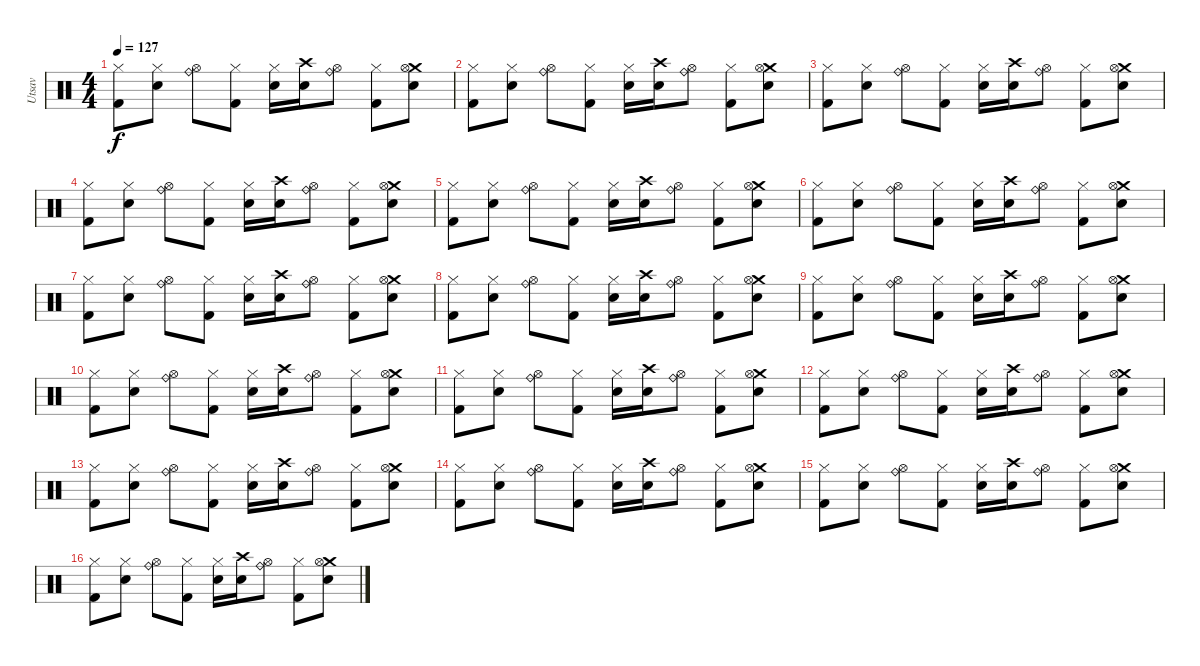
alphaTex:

\track ("Utsav" "Utsav") {instrument percussion}
\staff {score}
\articulation defaults
\ts (4 4)
\tempo 127
\clef neutral
\ks c
("Hi-Hat (closed)" "Kick (hit) 2").8{dy f} ("Hi-Hat (closed)" "Snare (hit) 2").8 ("Ride (bell)" "Hi-Hat (open)").8 ("Hi-Hat (closed)" "Kick (hit) 2").8 ("Hi-Hat (closed)" "Snare (hit) 2").16 ("Crash high (hit)" "Snare (hit) 2").16 ("Ride (bell)" "Hi-Hat (open)").8 ("Hi-Hat (closed)" "Kick (hit) 2").8 ("Crash medium (hit)" "Hi-Hat (open)" "Snare (hit) 2").8 |
("Hi-Hat (closed)" "Kick (hit) 2").8 ("Hi-Hat (closed)" "Snare (hit) 2").8 ("Ride (bell)" "Hi-Hat (open)").8 ("Hi-Hat (closed)" "Kick (hit) 2").8 ("Hi-Hat (closed)" "Snare (hit) 2").16 ("Crash high (hit)" "Snare (hit) 2").16 ("Ride (bell)" "Hi-Hat (open)").8 ("Hi-Hat (closed)" "Kick (hit) 2").8 ("Crash medium (hit)" "Hi-Hat (open)" "Snare (hit) 2").8 |
("Hi-Hat (closed)" "Kick (hit) 2").8 ("Hi-Hat (closed)" "Snare (hit) 2").8 ("Ride (bell)" "Hi-Hat (open)").8 ("Hi-Hat (closed)" "Kick (hit) 2").8 ("Hi-Hat (closed)" "Snare (hit) 2").16 ("Crash high (hit)" "Snare (hit) 2").16 ("Ride (bell)" "Hi-Hat (open)").8 ("Hi-Hat (closed)" "Kick (hit) 2").8 ("Crash medium (hit)" "Hi-Hat (open)" "Snare (hit) 2").8 |
("Hi-Hat (closed)" "Kick (hit) 2").8 ("Hi-Hat (closed)" "Snare (hit) 2").8 ("Ride (bell)" "Hi-Hat (open)").8 ("Hi-Hat (closed)" "Kick (hit) 2").8 ("Hi-Hat (closed)" "Snare (hit) 2").16 ("Crash high (hit)" "Snare (hit) 2").16 ("Ride (bell)" "Hi-Hat (open)").8 ("Hi-Hat (closed)" "Kick (hit) 2").8 ("Crash medium (hit)" "Hi-Hat (open)" "Snare (hit) 2").8 |
("Hi-Hat (closed)" "Kick (hit) 2").8 ("Hi-Hat (closed)" "Snare (hit) 2").8 ("Ride (bell)" "Hi-Hat (open)").8 ("Hi-Hat (closed)" "Kick (hit) 2").8 ("Hi-Hat (closed)" "Snare (hit) 2").16 ("Crash high (hit)" "Snare (hit) 2").16 ("Ride (bell)" "Hi-Hat (open)").8 ("Hi-Hat (closed)" "Kick (hit) 2").8 ("Crash medium (hit)" "Hi-Hat (open)" "Snare (hit) 2").8 |
("Hi-Hat (closed)" "Kick (hit) 2").8 ("Hi-Hat (closed)" "Snare (hit) 2").8 ("Ride (bell)" "Hi-Hat (open)").8 ("Hi-Hat (closed)" "Kick (hit) 2").8 ("Hi-Hat (closed)" "Snare (hit) 2").16 ("Crash high (hit)" "Snare (hit) 2").16 ("Ride (bell)" "Hi-Hat (open)").8 ("Hi-Hat (closed)" "Kick (hit) 2").8 ("Crash medium (hit)" "Hi-Hat (open)" "Snare (hit) 2").8 |
("Hi-Hat (closed)" "Kick (hit) 2").8 ("Hi-Hat (closed)" "Snare (hit) 2").8 ("Ride (bell)" "Hi-Hat (open)").8 ("Hi-Hat (closed)" "Kick (hit) 2").8 ("Hi-Hat (closed)" "Snare (hit) 2").16 ("Crash high (hit)" "Snare (hit) 2").16 ("Ride (bell)" "Hi-Hat (open)").8 ("Hi-Hat (closed)" "Kick (hit) 2").8 ("Crash medium (hit)" "Hi-Hat (open)" "Snare (hit) 2").8 |
("Hi-Hat (closed)" "Kick (hit) 2").8 ("Hi-Hat (closed)" "Snare (hit) 2").8 ("Ride (bell)" "Hi-Hat (open)").8 ("Hi-Hat (closed)" "Kick (hit) 2").8 ("Hi-Hat (closed)" "Snare (hit) 2").16 ("Crash high (hit)" "Snare (hit) 2").16 ("Ride (bell)" "Hi-Hat (open)").8 ("Hi-Hat (closed)" "Kick (hit) 2").8 ("Crash medium (hit)" "Hi-Hat (open)" "Snare (hit) 2").8 |
("Hi-Hat (closed)" "Kick (hit) 2").8 ("Hi-Hat (closed)" "Snare (hit) 2").8 ("Ride (bell)" "Hi-Hat (open)").8 ("Hi-Hat (closed)" "Kick (hit) 2").8 ("Hi-Hat (closed)" "Snare (hit) 2").16 ("Crash high (hit)" "Snare (hit) 2").16 ("Ride (bell)" "Hi-Hat (open)").8 ("Hi-Hat (closed)" "Kick (hit) 2").8 ("Crash medium (hit)" "Hi-Hat (open)" "Snare (hit) 2").8 |
("Hi-Hat (closed)" "Kick (hit) 2").8 ("Hi-Hat (closed)" "Snare (hit) 2").8 ("Ride (bell)" "Hi-Hat (open)").8 ("Hi-Hat (closed)" "Kick (hit) 2").8 ("Hi-Hat (closed)" "Snare (hit) 2").16 ("Crash high (hit)" "Snare (hit) 2").16 ("Ride (bell)" "Hi-Hat (open)").8 ("Hi-Hat (closed)" "Kick (hit) 2").8 ("Crash medium (hit)" "Hi-Hat (open)" "Snare (hit) 2").8 |
("Hi-Hat (closed)" "Kick (hit) 2").8 ("Hi-Hat (closed)" "Snare (hit) 2").8 ("Ride (bell)" "Hi-Hat (open)").8 ("Hi-Hat (closed)" "Kick (hit) 2").8 ("Hi-Hat (closed)" "Snare (hit) 2").16 ("Crash high (hit)" "Snare (hit) 2").16 ("Ride (bell)" "Hi-Hat (open)").8 ("Hi-Hat (closed)" "Kick (hit) 2").8 ("Crash medium (hit)" "Hi-Hat (open)" "Snare (hit) 2").8 |
("Hi-Hat (closed)" "Kick (hit) 2").8 ("Hi-Hat (closed)" "Snare (hit) 2").8 ("Ride (bell)" "Hi-Hat (open)").8 ("Hi-Hat (closed)" "Kick (hit) 2").8 ("Hi-Hat (closed)" "Snare (hit) 2").16 ("Crash high (hit)" "Snare (hit) 2").16 ("Ride (bell)" "Hi-Hat (open)").8 ("Hi-Hat (closed)" "Kick (hit) 2").8 ("Crash medium (hit)" "Hi-Hat (open)" "Snare (hit) 2").8 |
("Hi-Hat (closed)" "Kick (hit) 2").8 ("Hi-Hat (closed)" "Snare (hit) 2").8 ("Ride (bell)" "Hi-Hat (open)").8 ("Hi-Hat (closed)" "Kick (hit) 2").8 ("Hi-Hat (closed)" "Snare (hit) 2").16 ("Crash high (hit)" "Snare (hit) 2").16 ("Ride (bell)" "Hi-Hat (open)").8 ("Hi-Hat (closed)" "Kick (hit) 2").8 ("Crash medium (hit)" "Hi-Hat (open)" "Snare (hit) 2").8 |
("Hi-Hat (closed)" "Kick (hit) 2").8 ("Hi-Hat (closed)" "Snare (hit) 2").8 ("Ride (bell)" "Hi-Hat (open)").8 ("Hi-Hat (closed)" "Kick (hit) 2").8 ("Hi-Hat (closed)" "Snare (hit) 2").16 ("Crash high (hit)" "Snare (hit) 2").16 ("Ride (bell)" "Hi-Hat (open)").8 ("Hi-Hat (closed)" "Kick (hit) 2").8 ("Crash medium (hit)" "Hi-Hat (open)" "Snare (hit) 2").8 |
("Hi-Hat (closed)" "Kick (hit) 2").8 ("Hi-Hat (closed)" "Snare (hit) 2").8 ("Ride (bell)" "Hi-Hat (open)").8 ("Hi-Hat (closed)" "Kick (hit) 2").8 ("Hi-Hat (closed)" "Snare (hit) 2").16 ("Crash high (hit)" "Snare (hit) 2").16 ("Ride (bell)" "Hi-Hat (open)").8 ("Hi-Hat (closed)" "Kick (hit) 2").8 ("Crash medium (hit)" "Hi-Hat (open)" "Snare (hit) 2").8 |
("Hi-Hat (closed)" "Kick (hit) 2").8 ("Hi-Hat (closed)" "Snare (hit) 2").8 ("Ride (bell)" "Hi-Hat (open)").8 ("Hi-Hat (closed)" "Kick (hit) 2").8 ("Hi-Hat (closed)" "Snare (hit) 2").16 ("Crash high (hit)" "Snare (hit) 2").16 ("Ride (bell)" "Hi-Hat (open)").8 ("Hi-Hat (closed)" "Kick (hit) 2").8 ("Crash medium (hit)" "Hi-Hat (open)" "Snare (hit) 2").8
